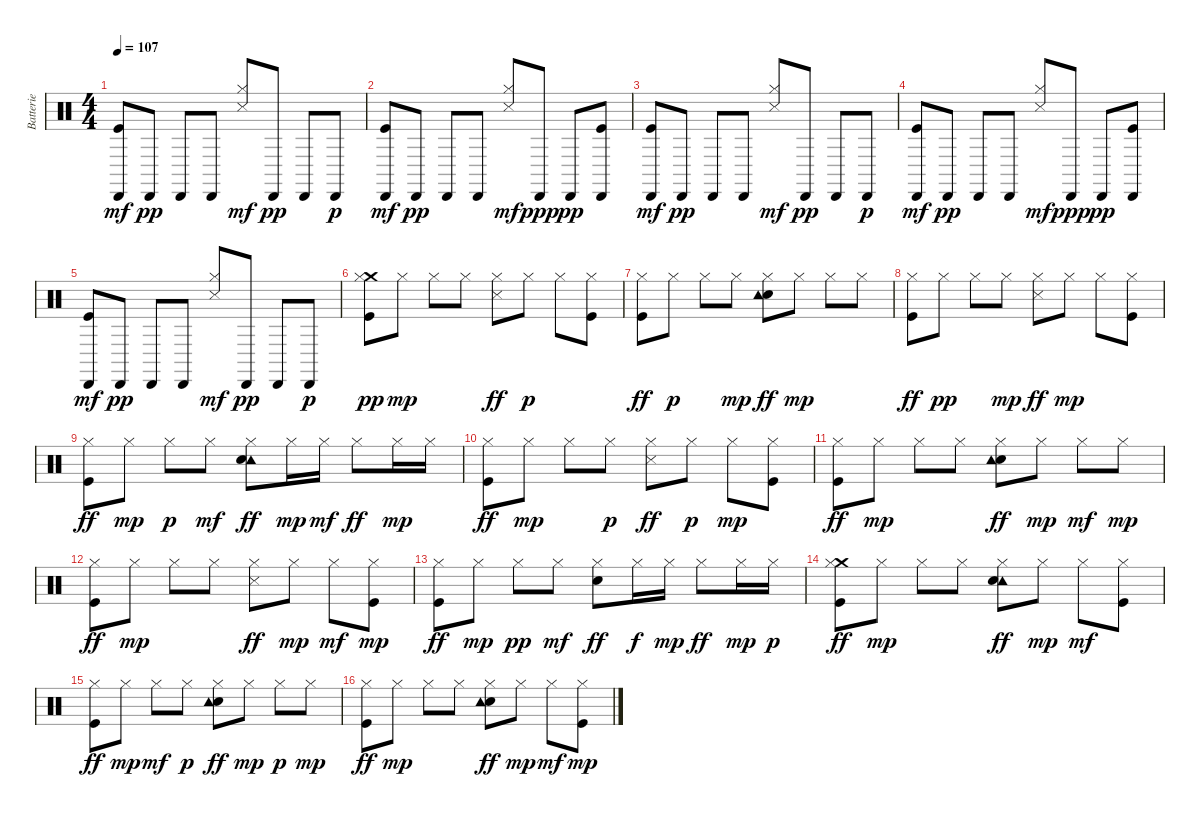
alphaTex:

\track ("Batterie" "Batterie") {instrument percussion}
\staff {score}
\articulation defaults
\ts (4 4)
\tempo 107
\clef neutral
\ks c
("Kick (hit)" "Cabasa (hit)").8{dy mf} "Cabasa (hit)".8{dy pp} "Cabasa (hit)".8 "Cabasa (hit)".8 ("Snare (side stick) 3" "Hi-Hat (closed)").8{dy mf} "Cabasa (hit)".8{dy pp} "Cabasa (hit)".8 "Cabasa (hit)".8{dy p} |
("Kick (hit)" "Cabasa (hit)").8{dy mf} "Cabasa (hit)".8{dy pp} "Cabasa (hit)".8 "Cabasa (hit)".8 ("Snare (side stick) 3" "Hi-Hat (closed)").8{dy mf} "Cabasa (hit)".8{dy ppp} "Cabasa (hit)".8{dy pp} ("Kick (hit)" "Cabasa (hit)").8 |
("Kick (hit)" "Cabasa (hit)").8{dy mf} "Cabasa (hit)".8{dy pp} "Cabasa (hit)".8 "Cabasa (hit)".8 ("Snare (side stick) 3" "Hi-Hat (closed)").8{dy mf} "Cabasa (hit)".8{dy pp} "Cabasa (hit)".8 "Cabasa (hit)".8{dy p} |
("Kick (hit)" "Cabasa (hit)").8{dy mf} "Cabasa (hit)".8{dy pp} "Cabasa (hit)".8 "Cabasa (hit)".8 ("Snare (side stick) 3" "Hi-Hat (closed)").8{dy mf} "Cabasa (hit)".8{dy ppp} "Cabasa (hit)".8{dy pp} ("Kick (hit)" "Cabasa (hit)").8 |
("Kick (hit)" "Cabasa (hit)").8{dy mf} "Cabasa (hit)".8{dy pp} "Cabasa (hit)".8 "Cabasa (hit)".8 ("Snare (side stick) 3" "Hi-Hat (closed)").8{dy mf} "Cabasa (hit)".8{dy pp} "Cabasa (hit)".8 "Cabasa (hit)".8{dy p} |
("Kick (hit)" "Crash medium (hit)" "Hi-Hat (closed)").8{dy pp} "Hi-Hat (closed)".8{dy mp} "Hi-Hat (closed)".8 "Hi-Hat (closed)".8 ("Snare (side stick) 3" "Hi-Hat (closed)").8{dy ff} "Hi-Hat (closed)".8{dy p} "Hi-Hat (closed)".8 ("Kick (hit)" "Hi-Hat (closed)").8 |
("Kick (hit)" "Hi-Hat (closed)").8{dy ff} "Hi-Hat (closed)".8{dy p} "Hi-Hat (closed)".8 "Hi-Hat (closed)".8{dy mp} ("Snare (hit) 2" "Tambourine (hit)" "Hi-Hat (closed)").8{dy ff} "Hi-Hat (closed)".8{dy mp} "Hi-Hat (closed)".8 "Hi-Hat (closed)".8 |
("Kick (hit)" "Hi-Hat (closed)").8{dy ff} "Hi-Hat (closed)".8{dy pp} "Hi-Hat (closed)".8 "Hi-Hat (closed)".8{dy mp} ("Snare (side stick) 3" "Hi-Hat (closed)").8{dy ff} "Hi-Hat (closed)".8{dy mp} "Hi-Hat (closed)".8 ("Kick (hit)" "Hi-Hat (closed)").8 |
("Kick (hit)" "Hi-Hat (closed)").8{dy ff} "Hi-Hat (closed)".8{dy mp} "Hi-Hat (closed)".8{dy p} "Hi-Hat (closed)".8{dy mf} ("Hi-Hat (closed)" "Tambourine (hit)" "Snare (hit) 2").8{dy ff} "Hi-Hat (closed)".16{dy mp} "Hi-Hat (closed)".16{dy mf} "Hi-Hat (closed)".8{dy ff} "Hi-Hat (closed)".16{dy mp} "Hi-Hat (closed)".16 |
("Kick (hit)" "Hi-Hat (closed)").8{dy ff} "Hi-Hat (closed)".8{dy mp} "Hi-Hat (closed)".8 "Hi-Hat (closed)".8{dy p} ("Snare (side stick) 3" "Hi-Hat (closed)").8{dy ff} "Hi-Hat (closed)".8{dy p} "Hi-Hat (closed)".8{dy mp} ("Kick (hit)" "Hi-Hat (closed)").8 |
("Kick (hit)" "Hi-Hat (closed)").8{dy ff} "Hi-Hat (closed)".8{dy mp} "Hi-Hat (closed)".8 "Hi-Hat (closed)".8 ("Snare (hit) 2" "Tambourine (hit)" "Hi-Hat (closed)").8{dy ff} "Hi-Hat (closed)".8{dy mp} "Hi-Hat (closed)".8{dy mf} "Hi-Hat (closed)".8{dy mp} |
("Kick (hit)" "Hi-Hat (closed)").8{dy ff} "Hi-Hat (closed)".8{dy mp} "Hi-Hat (closed)".8 "Hi-Hat (closed)".8 ("Snare (side stick) 3" "Hi-Hat (closed)").8{dy ff} "Hi-Hat (closed)".8{dy mp} "Hi-Hat (closed)".8{dy mf} ("Kick (hit)" "Hi-Hat (closed)").8{dy mp} |
("Kick (hit)" "Hi-Hat (closed)").8{dy ff} "Hi-Hat (closed)".8{dy mp} "Hi-Hat (closed)".8{dy pp} "Hi-Hat (closed)".8{dy mf} ("Snare (hit) 2" "Hi-Hat (closed)").8{dy ff} "Hi-Hat (closed)".16{dy f} "Hi-Hat (closed)".16{dy mp} "Hi-Hat (closed)".8{dy ff} "Hi-Hat (closed)".16{dy mp} "Hi-Hat (closed)".16{dy p} |
("Crash medium (hit)" "Kick (hit)" "Hi-Hat (closed)").8{dy ff} "Hi-Hat (closed)".8{dy mp} "Hi-Hat (closed)".8 "Hi-Hat (closed)".8 ("Tambourine (hit)" "Snare (hit) 2" "Hi-Hat (closed)").8{dy ff} "Hi-Hat (closed)".8{dy mp} "Hi-Hat (closed)".8{dy mf} ("Kick (hit)" "Hi-Hat (closed)").8 |
("Kick (hit)" "Hi-Hat (closed)").8{dy ff} "Hi-Hat (closed)".8{dy mp} "Hi-Hat (closed)".8{dy mf} "Hi-Hat (closed)".8{dy p} ("Snare (hit) 2" "Tambourine (hit)" "Hi-Hat (closed)").8{dy ff} "Hi-Hat (closed)".8{dy mp} "Hi-Hat (closed)".8{dy p} "Hi-Hat (closed)".8{dy mp} |
("Kick (hit)" "Hi-Hat (closed)").8{dy ff} "Hi-Hat (closed)".8{dy mp} "Hi-Hat (closed)".8 "Hi-Hat (closed)".8 ("Snare (hit) 2" "Tambourine (hit)" "Hi-Hat (closed)").8{dy ff} "Hi-Hat (closed)".8{dy mp} "Hi-Hat (closed)".8{dy mf} ("Kick (hit)" "Hi-Hat (closed)").8{dy mp}
